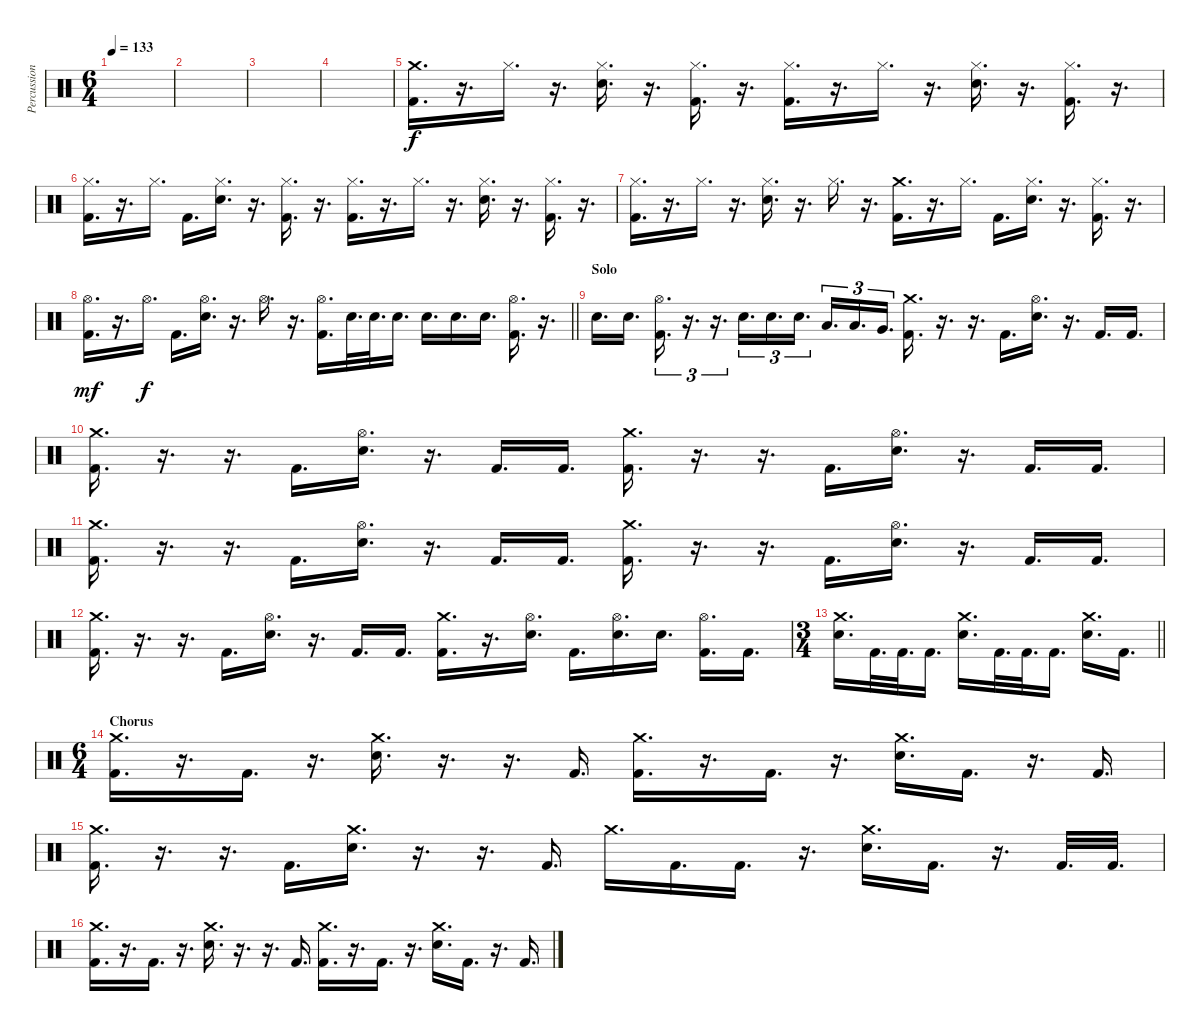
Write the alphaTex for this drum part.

\track ("Percussion" "Percussion") {instrument percussion}
\staff {score}
\articulation defaults
\ts (6 4)
\tempo 133
\clef neutral
\ks c
|
|
|
|
("Crash medium (hit)" "Kick (hit) 2").16{d} r.16{d} "Hi-Hat (closed)".16{d} r.16{d} ("Hi-Hat (closed)" "Electric Snare (hit)").16{d} r.16{d} ("Hi-Hat (closed)" "Kick (hit) 2").16{d} r.16{d} ("Hi-Hat (closed)" "Kick (hit) 2").16{d} r.16{d} "Hi-Hat (closed)".16{d} r.16{d} ("Hi-Hat (closed)" "Electric Snare (hit)").16{d} r.16{d} ("Hi-Hat (closed)" "Kick (hit) 2").16{d} r.16{d} |
("Hi-Hat (closed)" "Kick (hit) 2").16{d} r.16{d} "Hi-Hat (closed)".16{d} "Kick (hit) 2".16{d} ("Hi-Hat (closed)" "Electric Snare (hit)").16{d} r.16{d} ("Hi-Hat (closed)" "Kick (hit) 2").16{d} r.16{d} ("Hi-Hat (closed)" "Kick (hit) 2").16{d} r.16{d} "Hi-Hat (closed)".16{d} r.16{d} ("Hi-Hat (closed)" "Electric Snare (hit)").16{d} r.16{d} ("Hi-Hat (closed)" "Kick (hit) 2").16{d} r.16{d} |
("Hi-Hat (closed)" "Kick (hit) 2").16{d} r.16{d} "Hi-Hat (closed)".16{d} r.16{d} ("Hi-Hat (closed)" "Electric Snare (hit)").16{d} r.16{d} "Hi-Hat (closed)".16{d} r.16{d} ("Crash medium (hit)" "Kick (hit) 2").16{d} r.16{d} "Hi-Hat (closed)".16{d} "Kick (hit) 2".16{d} ("Hi-Hat (closed)" "Electric Snare (hit)").16{d} r.16{d} ("Hi-Hat (closed)" "Kick (hit) 2").16{d} r.16{d} |
\barLineRight lightlight
("Hi-Hat (open)" "Kick (hit) 2").16{d dy mf} r.16{d} "Hi-Hat (open)".16{d dy f} "Kick (hit) 2".16{d} ("Hi-Hat (open)" "Electric Snare (hit)").16{d} r.16{d} "Hi-Hat (open)".16{d} r.16{d} ("Hi-Hat (open)" "Kick (hit) 2").16{d} "Electric Snare (hit)".32{d} "Electric Snare (hit)".32{d} "Electric Snare (hit)".16{d} "Electric Snare (hit)".16{d} "Electric Snare (hit)".16{d} "Electric Snare (hit)".16{d} ("Hi-Hat (open)" "Kick (hit) 2").16{d} r.16{d} |
\section ("" "Solo")
"Electric Snare (hit)".16{d} "Electric Snare (hit)".16{d beam splitsecondary} ("Hi-Hat (open)" "Kick (hit) 2").16{d tu (3 2)} r.16{d tu (3 2)} r.16{d tu (3 2)} "Electric Snare (hit)".16{d tu (3 2)} "Electric Snare (hit)".16{d tu (3 2)} "Electric Snare (hit)".16{d tu (3 2)} "Low Tom (hit)".16{d tu (3 2)} "Low Tom (hit)".16{d tu (3 2)} "Very Low Tom (hit)".16{d tu (3 2)} ("Crash medium (hit)" "Kick (hit) 2").16{d} r.16{d} r.16{d} "Kick (hit) 2".16{d} ("Hi-Hat (open)" "Electric Snare (hit)").16{d} r.16{d} "Kick (hit) 2".16{d} "Kick (hit) 2".16{d} |
("Crash medium (hit)" "Kick (hit) 2").16{d} r.16{d} r.16{d} "Kick (hit) 2".16{d} ("Hi-Hat (open)" "Electric Snare (hit)").16{d} r.16{d} "Kick (hit) 2".16{d} "Kick (hit) 2".16{d} ("Crash medium (hit)" "Kick (hit) 2").16{d} r.16{d} r.16{d} "Kick (hit) 2".16{d} ("Hi-Hat (open)" "Electric Snare (hit)").16{d} r.16{d} "Kick (hit) 2".16{d} "Kick (hit) 2".16{d} |
("Crash medium (hit)" "Kick (hit) 2").16{d} r.16{d} r.16{d} "Kick (hit) 2".16{d} ("Hi-Hat (open)" "Electric Snare (hit)").16{d} r.16{d} "Kick (hit) 2".16{d} "Kick (hit) 2".16{d} ("Crash medium (hit)" "Kick (hit) 2").16{d} r.16{d} r.16{d} "Kick (hit) 2".16{d} ("Hi-Hat (open)" "Electric Snare (hit)").16{d} r.16{d} "Kick (hit) 2".16{d} "Kick (hit) 2".16{d} |
("Crash medium (hit)" "Kick (hit) 2").16{d} r.16{d} r.16{d} "Kick (hit) 2".16{d} ("Hi-Hat (open)" "Electric Snare (hit)").16{d} r.16{d} "Kick (hit) 2".16{d} "Kick (hit) 2".16{d} ("Crash medium (hit)" "Kick (hit) 2").16{d} r.16{d} ("Hi-Hat (open)" "Electric Snare (hit)").16{d} "Kick (hit) 2".16{d} ("Hi-Hat (open)" "Electric Snare (hit)").16{d} "Electric Snare (hit)".16{d} ("Hi-Hat (open)" "Kick (hit) 2").16{d} "Kick (hit) 2".16{d} |
\ts (3 4)
\barLineRight lightlight
("Crash medium (hit)" "Electric Snare (hit)").16{d} "Kick (hit) 2".32{d} "Kick (hit) 2".32{d} "Kick (hit) 2".16{d} ("Crash medium (hit)" "Electric Snare (hit)").16{d} "Kick (hit) 2".32{d} "Kick (hit) 2".32{d} "Kick (hit) 2".16{d} ("Crash medium (hit)" "Electric Snare (hit)").16{d} "Kick (hit) 2".16{d} |
\ts (6 4)
\section ("" "Chorus")
("Crash medium (hit)" "Kick (hit) 2").16{d} r.16{d} "Kick (hit) 2".16{d} r.16{d} ("Crash medium (hit)" "Electric Snare (hit)").16{d} r.16{d} r.16{d} "Kick (hit) 2".16{d} ("Crash medium (hit)" "Kick (hit) 2").16{d} r.16{d} "Kick (hit) 2".16{d} r.16{d} ("Crash medium (hit)" "Electric Snare (hit)").16{d} "Kick (hit) 2".16{d} r.16{d} "Kick (hit) 2".16{d} |
("Crash medium (hit)" "Kick (hit) 2").16{d} r.16{d} r.16{d} "Kick (hit) 2".16{d} ("Crash medium (hit)" "Electric Snare (hit)").16{d} r.16{d} r.16{d} "Kick (hit) 2".16{d} "Crash medium (hit)".16{d} "Kick (hit) 2".16{d} "Kick (hit) 2".16{d} r.16{d} ("Crash medium (hit)" "Electric Snare (hit)").16{d} "Kick (hit) 2".16{d} r.16{d} "Kick (hit) 2".32{d} "Kick (hit) 2".32{d} |
("Crash medium (hit)" "Kick (hit) 2").16{d} r.16{d} "Kick (hit) 2".16{d} r.16{d} ("Crash medium (hit)" "Electric Snare (hit)").16{d} r.16{d} r.16{d} "Kick (hit) 2".16{d} ("Crash medium (hit)" "Kick (hit) 2").16{d} r.16{d} "Kick (hit) 2".16{d} r.16{d} ("Crash medium (hit)" "Electric Snare (hit)").16{d} "Kick (hit) 2".16{d} r.16{d} "Kick (hit) 2".16{d}
